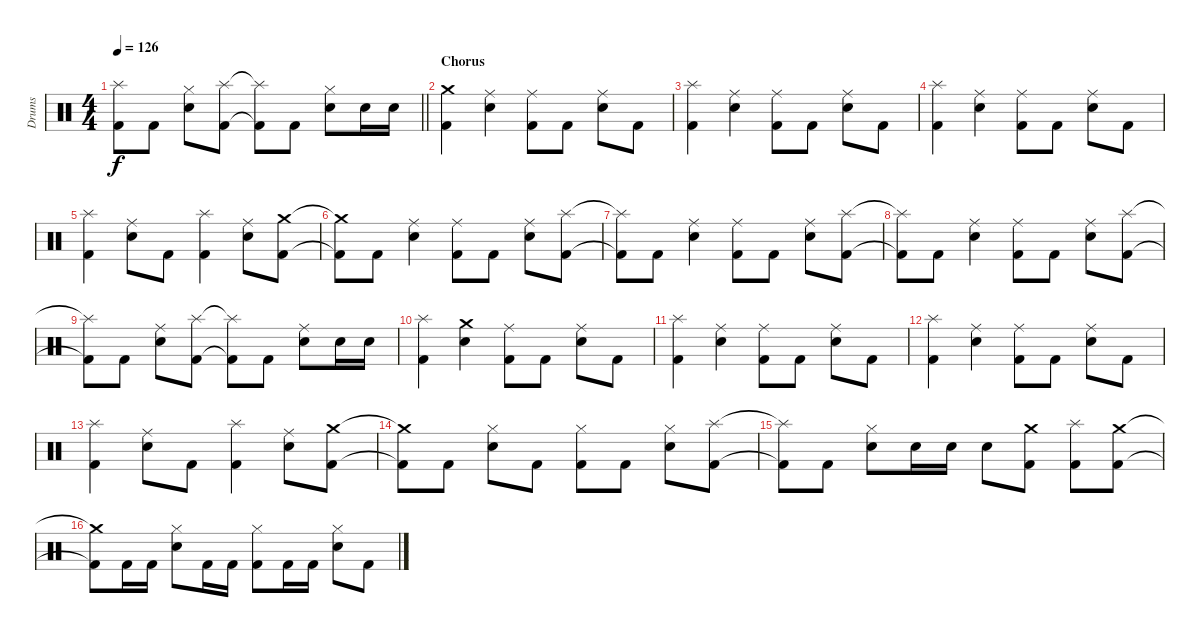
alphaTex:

\track ("Drums" "Drums") {instrument percussion}
\staff {score}
\articulation defaults
\ts (4 4)
\tempo 126
\clef neutral
\barLineRight lightlight
\ks c
("Splash (hit)"{t} "Kick (hit) 2"{t}).8{dy f} "Kick (hit) 2".8 ("Hi-Hat (closed)" "Snare (hit) 2").8 ("Splash (hit)" "Kick (hit) 2").8 ("Splash (hit)"{t} "Kick (hit) 2"{t}).8 "Kick (hit) 2".8 ("Hi-Hat (closed)" "Snare (hit) 2").8 "Snare (hit) 2".16 "Snare (hit) 2".16 |
\section ("" "Chorus")
("Crash medium (hit)" "Kick (hit) 2").4 ("Ride (middle)" "Snare (hit) 2").4 ("Ride (middle)" "Kick (hit) 2").8 "Kick (hit) 2".8 ("Ride (middle)" "Snare (hit) 2").8 "Kick (hit) 2".8 |
("Splash (hit)" "Kick (hit) 2").4 ("Ride (middle)" "Snare (hit) 2").4 ("Ride (middle)" "Kick (hit) 2").8 "Kick (hit) 2".8 ("Ride (middle)" "Snare (hit) 2").8 "Kick (hit) 2".8 |
("Splash (hit)" "Kick (hit) 2").4 ("Ride (middle)" "Snare (hit) 2").4 ("Ride (middle)" "Kick (hit) 2").8 "Kick (hit) 2".8 ("Ride (middle)" "Snare (hit) 2").8 "Kick (hit) 2".8 |
("Splash (hit)" "Kick (hit) 2").4 ("Ride (middle)" "Snare (hit) 2").8 "Kick (hit) 2".8 ("Splash (hit)" "Kick (hit) 2").4 ("Ride (middle)" "Snare (hit) 2").8 ("Crash medium (hit)" "Kick (hit) 2").8 |
("Crash medium (hit)"{t} "Kick (hit) 2"{t}).8 "Kick (hit) 2".8 ("Ride (middle)" "Snare (hit) 2").4 ("Ride (middle)" "Kick (hit) 2").8 "Kick (hit) 2".8 ("Ride (middle)" "Snare (hit) 2").8 ("Splash (hit)" "Kick (hit) 2").8 |
("Splash (hit)"{t} "Kick (hit) 2"{t}).8 "Kick (hit) 2".8 ("Ride (middle)" "Snare (hit) 2").4 ("Ride (middle)" "Kick (hit) 2").8 "Kick (hit) 2".8 ("Ride (middle)" "Snare (hit) 2").8 ("Splash (hit)" "Kick (hit) 2").8 |
("Splash (hit)"{t} "Kick (hit) 2"{t}).8 "Kick (hit) 2".8 ("Ride (middle)" "Snare (hit) 2").4 ("Ride (middle)" "Kick (hit) 2").8 "Kick (hit) 2".8 ("Ride (middle)" "Snare (hit) 2").8 ("Splash (hit)" "Kick (hit) 2").8 |
("Splash (hit)"{t} "Kick (hit) 2"{t}).8 "Kick (hit) 2".8 ("Ride (middle)" "Snare (hit) 2").8 ("Splash (hit)" "Kick (hit) 2").8 ("Splash (hit)"{t} "Kick (hit) 2"{t}).8 "Kick (hit) 2".8 ("Ride (middle)" "Snare (hit) 2").8 "Snare (hit) 2".16 "Snare (hit) 2".16 |
("Splash (hit)" "Kick (hit) 2").4 ("Crash medium (hit)" "Snare (hit) 2").4 ("Ride (middle)" "Kick (hit) 2").8 "Kick (hit) 2".8 ("Ride (middle)" "Snare (hit) 2").8 "Kick (hit) 2".8 |
("Splash (hit)" "Kick (hit) 2").4 ("Ride (middle)" "Snare (hit) 2").4 ("Ride (middle)" "Kick (hit) 2").8 "Kick (hit) 2".8 ("Ride (middle)" "Snare (hit) 2").8 "Kick (hit) 2".8 |
("Splash (hit)" "Kick (hit) 2").4 ("Ride (middle)" "Snare (hit) 2").4 ("Ride (middle)" "Kick (hit) 2").8 "Kick (hit) 2".8 ("Ride (middle)" "Snare (hit) 2").8 "Kick (hit) 2".8 |
("Splash (hit)" "Kick (hit) 2").4 ("Ride (middle)" "Snare (hit) 2").8 "Kick (hit) 2".8 ("Splash (hit)" "Kick (hit) 2").4 ("Ride (middle)" "Snare (hit) 2").8 ("Crash medium (hit)" "Kick (hit) 2").8 |
("Crash medium (hit)"{t} "Kick (hit) 2"{t}).8 "Kick (hit) 2".8 ("Hi-Hat (closed)" "Snare (hit) 2").8 "Kick (hit) 2".8 ("Hi-Hat (closed)" "Kick (hit) 2").8 "Kick (hit) 2".8 ("Hi-Hat (closed)" "Snare (hit) 2").8 ("Splash (hit)" "Kick (hit) 2").8 |
("Splash (hit)"{t} "Kick (hit) 2"{t}).8 "Kick (hit) 2".8 ("Hi-Hat (closed)" "Snare (hit) 2").8 "Snare (hit) 2".16 "Snare (hit) 2".16 "Snare (hit) 2".8 ("Crash medium (hit)" "Kick (hit) 2").8 ("Splash (hit)" "Kick (hit) 2").8 ("Crash medium (hit)" "Kick (hit) 2").8 |
("Crash medium (hit)"{t} "Kick (hit) 2"{t}).8 "Kick (hit) 2".16 "Kick (hit) 2".16 ("Hi-Hat (closed)" "Snare (hit) 2").8 "Kick (hit) 2".16 "Kick (hit) 2".16 ("Hi-Hat (closed)" "Kick (hit) 2").8 "Kick (hit) 2".16 "Kick (hit) 2".16 ("Hi-Hat (closed)" "Snare (hit) 2").8 "Kick (hit) 2".8
